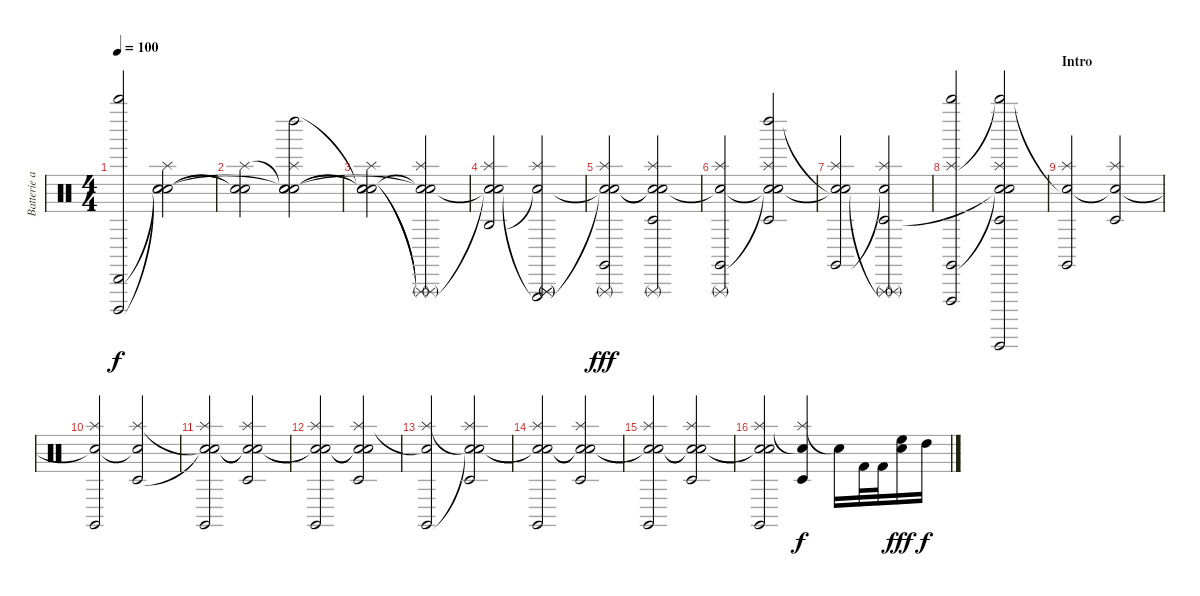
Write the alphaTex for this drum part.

\track ("Batterie and Effects" "Batterie a") {instrument percussion}
\staff {score}
\articulation defaults
\ts (4 4)
\tempo 100
\clef neutral
\ks c
("Cabasa (hit)" "Whistle high (hit)" "Cuica (open)").2{dy f volume 11} ("Snare (hit)"{t} "Splash (hit)" "Snare (hit)"{t} "Snare (hit)").2 |
("Snare (hit)"{t} "Splash (hit)" "Snare (hit)"{t}).2 ("Left Maraca (hit)" "Snare (hit)"{t} "Splash (hit)" "Snare (hit)"{t} "Snare (hit)").2 |
("Snare (hit)"{t} "Snare (hit)"{t} "Splash (hit)" "Snare (hit)"{t}).2 ("Snare (hit)"{t} "Triangle (rnute)"{t} "Splash (hit)" "Triangle (rnute)"{t} "Snare (hit)"{t}).2 |
("Snare (hit)"{t} "Snare (hit)"{t} "Splash (hit)" "Agogo high (hit)").2 ("Triangle (rnute)" "Triangle (rnute)"{t} "Splash (hit)" "Snare (hit)"{t} "Triangle (hit)").2 |
("Triangle (rnute)" "Snare (hit)"{t} "Splash (hit)" "Snare (hit)"{t} "Claves (hit)").2{dy fff} ("Triangle (rnute)" "Snare (hit)"{t} "Splash (hit)" "Snare (hit)"{t} "Timbale low (hit)").2 |
("Triangle (rnute)" "Snare (hit)"{t} "Splash (hit)" "Claves (hit)").2 ("Left Maraca (hit)" "Snare (hit)"{t} "Splash (hit)" "Snare (hit)"{t} "Timbale low (hit)").2 |
("Snare (hit)"{t} "Snare (hit)"{t} "Splash (hit)" "Claves (hit)").2 ("Triangle (rnute)" "Triangle (rnute)"{t} "Splash (hit)" "Snare (hit)"{t} "Timbale low (hit)").2 |
("Whistle high (hit)" "Splash (hit)" "Vibraslap (hit)" "Claves (hit)").2 ("Guiro (hit)" "Whistle high (hit)"{t} "Splash (hit)" "Snare (hit)"{t} "Snare (hit)"{t} "Timbale low (hit)").2 |
\section ("" "Intro")
("Splash (hit)" "Snare (hit)"{t} "Claves (hit)").2 ("Splash (hit)" "Snare (hit)"{t} "Timbale low (hit)").2 |
("Splash (hit)" "Snare (hit)"{t} "Claves (hit)").2 ("Splash (hit)" "Snare (hit)"{t} "Timbale low (hit)").2 |
("Snare (hit)"{t} "Splash (hit)" "Snare (hit)"{t} "Claves (hit)").2 ("Snare (hit)"{t} "Splash (hit)" "Snare (hit)"{t} "Timbale low (hit)").2 |
("Snare (hit)"{t} "Splash (hit)" "Snare (hit)"{t} "Claves (hit)").2 ("Snare (hit)"{t} "Splash (hit)" "Snare (hit)"{t} "Timbale low (hit)").2 |
("Splash (hit)" "Snare (hit)"{t} "Claves (hit)").2 ("Snare (hit)"{t} "Splash (hit)" "Snare (hit)"{t} "Timbale low (hit)").2 |
("Snare (hit)"{t} "Splash (hit)" "Snare (hit)"{t} "Claves (hit)").2 ("Snare (hit)"{t} "Splash (hit)" "Snare (hit)"{t} "Timbale low (hit)").2 |
("Snare (hit)"{t} "Splash (hit)" "Snare (hit)"{t} "Claves (hit)").2 ("Snare (hit)"{t} "Splash (hit)" "Snare (hit)"{t} "Timbale low (hit)").2 |
("Snare (hit)"{t} "Splash (hit)" "Snare (hit)"{t} "Claves (hit)").2 ("Splash (hit)" "Snare (hit)"{t} "Timbale low (hit)").4{dy f} "Snare (hit)"{t}.16 "Kick (hit) 2".32 "Kick (hit) 2".32 ("High Floor Tom (hit)" "Electric Snare (hit)").16{dy fff} "High Tom (hit)".16{dy f}
